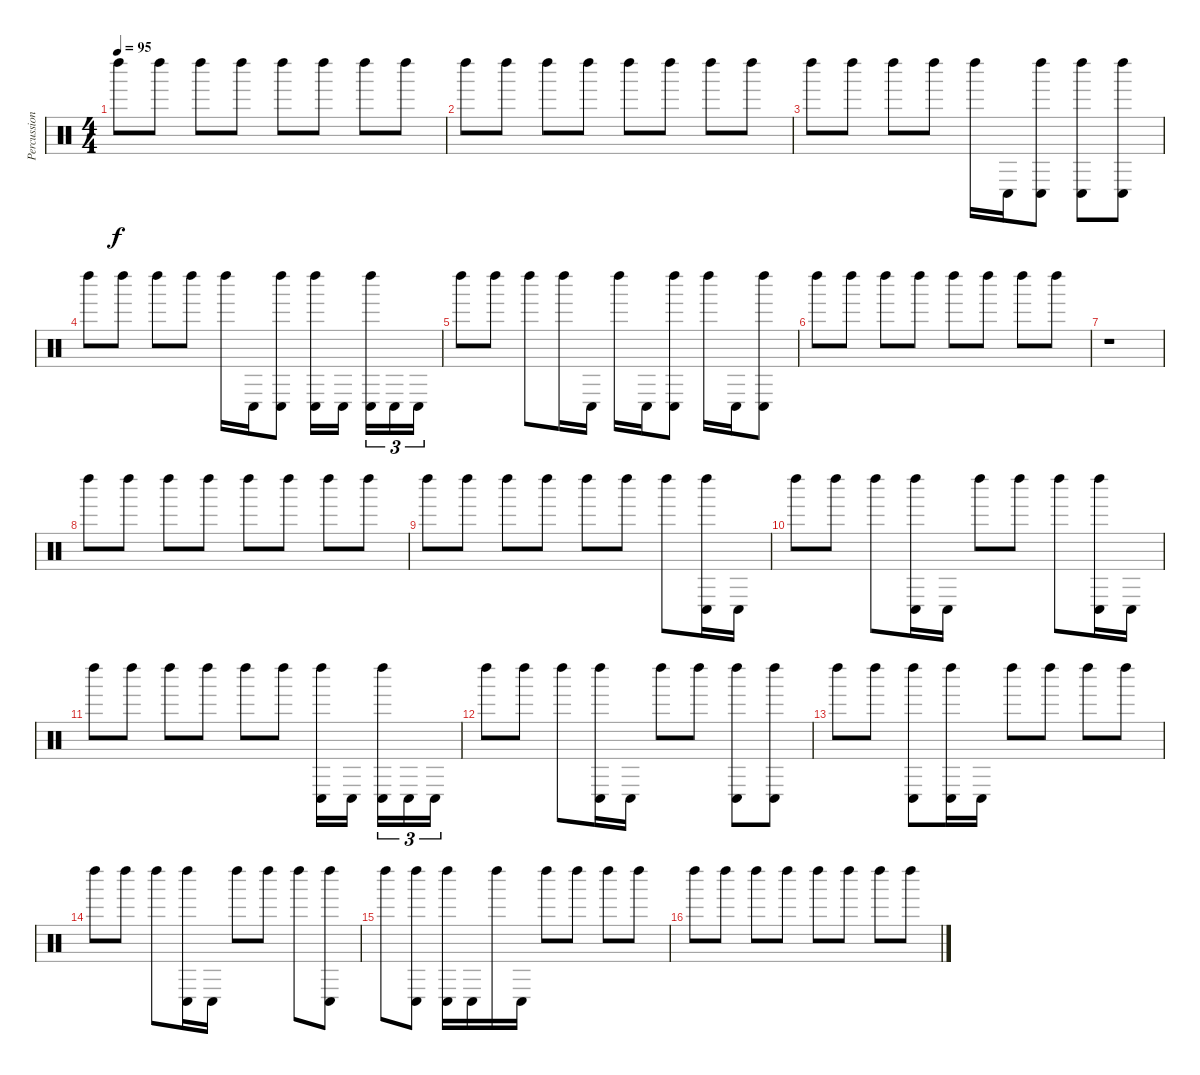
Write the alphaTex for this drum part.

\track ("Percussion" "Percussion") {instrument percussion}
\staff {score}
\articulation defaults
\ts (4 4)
\tempo 95
\clef neutral
\ks c "Left Maraca (hit)".8{dy f} "Left Maraca (hit)".8 "Left Maraca (hit)".8 "Left Maraca (hit)".8 "Left Maraca (hit)".8 "Left Maraca (hit)".8 "Left Maraca (hit)".8 "Left Maraca (hit)".8
|
"Left Maraca (hit)".8 "Left Maraca (hit)".8 "Left Maraca (hit)".8 "Left Maraca (hit)".8 "Left Maraca (hit)".8 "Left Maraca (hit)".8 "Left Maraca (hit)".8 "Left Maraca (hit)".8 |
"Left Maraca (hit)".8 "Left Maraca (hit)".8 "Left Maraca (hit)".8 "Left Maraca (hit)".8 "Left Maraca (hit)".16 "Conga low (hit)".16 ("Left Maraca (hit)" "Conga low (hit)").8 ("Left Maraca (hit)" "Conga low (hit)").8 ("Left Maraca (hit)" "Conga low (hit)").8 |
"Left Maraca (hit)".8 "Left Maraca (hit)".8 "Left Maraca (hit)".8 "Left Maraca (hit)".8 "Left Maraca (hit)".16 "Conga low (hit)".16 ("Left Maraca (hit)" "Conga low (hit)").8 ("Left Maraca (hit)" "Conga low (hit)").16 "Conga low (hit)".16{beam splitsecondary} ("Left Maraca (hit)" "Conga low (hit)").16{tu (3 2)} "Conga low (hit)".16{tu (3 2)} "Conga low (hit)".16{tu (3 2)} |
"Left Maraca (hit)".8 "Left Maraca (hit)".8 "Left Maraca (hit)".8 "Left Maraca (hit)".16 "Conga low (hit)".16 "Left Maraca (hit)".16 "Conga low (hit)".16 ("Left Maraca (hit)" "Conga low (hit)").8 "Left Maraca (hit)".16 "Conga low (hit)".16 ("Left Maraca (hit)" "Conga low (hit)").8 |
"Left Maraca (hit)".8 "Left Maraca (hit)".8 "Left Maraca (hit)".8 "Left Maraca (hit)".8 "Left Maraca (hit)".8 "Left Maraca (hit)".8 "Left Maraca (hit)".8 "Left Maraca (hit)".8 |
r.1 |
"Left Maraca (hit)".8 "Left Maraca (hit)".8 "Left Maraca (hit)".8 "Left Maraca (hit)".8 "Left Maraca (hit)".8 "Left Maraca (hit)".8 "Left Maraca (hit)".8 "Left Maraca (hit)".8 |
"Left Maraca (hit)".8 "Left Maraca (hit)".8 "Left Maraca (hit)".8 "Left Maraca (hit)".8 "Left Maraca (hit)".8 "Left Maraca (hit)".8 "Left Maraca (hit)".8 ("Left Maraca (hit)" "Conga low (hit)").16 "Conga low (hit)".16 |
"Left Maraca (hit)".8 "Left Maraca (hit)".8 "Left Maraca (hit)".8 ("Left Maraca (hit)" "Conga low (hit)").16 "Conga low (hit)".16 "Left Maraca (hit)".8 "Left Maraca (hit)".8 "Left Maraca (hit)".8 ("Left Maraca (hit)" "Conga low (hit)").16 "Conga low (hit)".16 |
"Left Maraca (hit)".8 "Left Maraca (hit)".8 "Left Maraca (hit)".8 "Left Maraca (hit)".8 "Left Maraca (hit)".8 "Left Maraca (hit)".8 ("Left Maraca (hit)" "Conga low (hit)").16 "Conga low (hit)".16{beam splitsecondary} ("Left Maraca (hit)" "Conga low (hit)").16{tu (3 2)} "Conga low (hit)".16{tu (3 2)} "Conga low (hit)".16{tu (3 2)} |
"Left Maraca (hit)".8 "Left Maraca (hit)".8 "Left Maraca (hit)".8 ("Left Maraca (hit)" "Conga low (hit)").16 "Conga low (hit)".16 "Left Maraca (hit)".8 "Left Maraca (hit)".8 ("Left Maraca (hit)" "Conga low (hit)").8 ("Left Maraca (hit)" "Conga low (hit)").8 |
"Left Maraca (hit)".8 "Left Maraca (hit)".8 ("Left Maraca (hit)" "Conga low (hit)").8 ("Left Maraca (hit)" "Conga low (hit)").16 "Conga low (hit)".16 "Left Maraca (hit)".8 "Left Maraca (hit)".8 "Left Maraca (hit)".8 "Left Maraca (hit)".8 |
"Left Maraca (hit)".8 "Left Maraca (hit)".8 "Left Maraca (hit)".8 ("Left Maraca (hit)" "Conga low (hit)").16 "Conga low (hit)".16 "Left Maraca (hit)".8 "Left Maraca (hit)".8 "Left Maraca (hit)".8 ("Left Maraca (hit)" "Conga low (hit)").8 |
"Left Maraca (hit)".8 ("Left Maraca (hit)" "Conga low (hit)").8 ("Left Maraca (hit)" "Conga low (hit)").16 "Conga low (hit)".16 "Left Maraca (hit)".16 "Conga low (hit)".16 "Left Maraca (hit)".8 "Left Maraca (hit)".8 "Left Maraca (hit)".8 "Left Maraca (hit)".8 |
"Left Maraca (hit)".8 "Left Maraca (hit)".8 "Left Maraca (hit)".8 "Left Maraca (hit)".8 "Left Maraca (hit)".8 "Left Maraca (hit)".8 "Left Maraca (hit)".8 "Left Maraca (hit)".8
